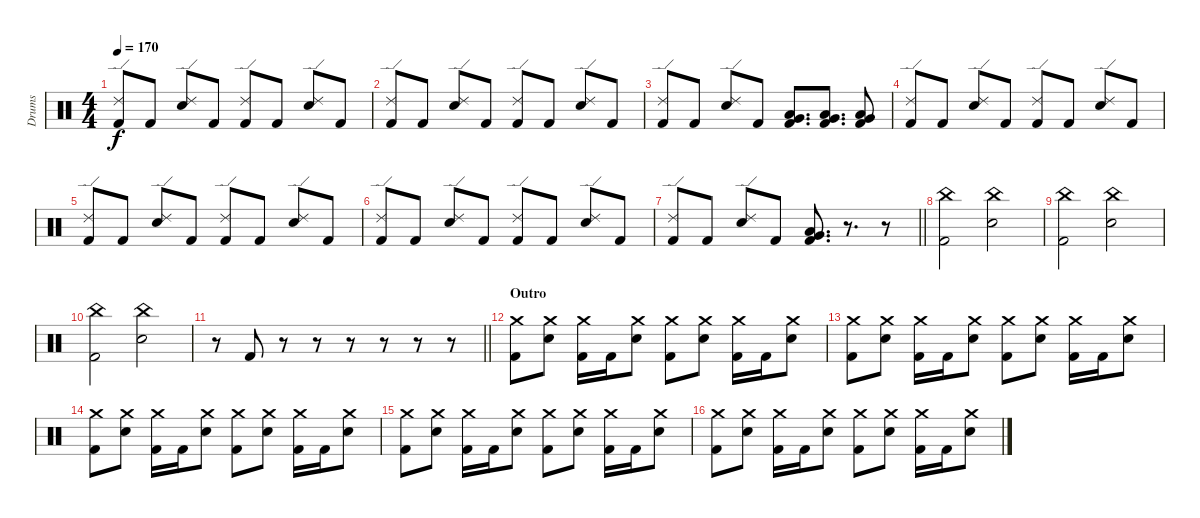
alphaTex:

\track ("Drums" "Drums") {instrument percussion}
\staff {score}
\articulation defaults
\ts (4 4)
\tempo 170
\clef neutral
\ks c
("Ride (edge) 2" "Kick (hit) 2").8{dy f} "Kick (hit) 2".8 ("Ride (edge) 2" "Electric Snare (hit)").8 "Kick (hit) 2".8 ("Ride (edge) 2" "Kick (hit) 2").8 "Kick (hit) 2".8 ("Ride (edge) 2" "Electric Snare (hit)").8 "Kick (hit) 2".8 |
("Ride (edge) 2" "Kick (hit) 2").8 "Kick (hit) 2".8 ("Ride (edge) 2" "Electric Snare (hit)").8 "Kick (hit) 2".8 ("Ride (edge) 2" "Kick (hit) 2").8 "Kick (hit) 2".8 ("Ride (edge) 2" "Electric Snare (hit)").8 "Kick (hit) 2".8 |
("Ride (edge) 2" "Kick (hit) 2").8 "Kick (hit) 2".8 ("Ride (edge) 2" "Electric Snare (hit)").8 "Kick (hit) 2".8 ("Low Floor Tom (hit)" "Very Low Tom (hit)" "Kick (hit) 2").8{d} ("Low Floor Tom (hit)" "Very Low Tom (hit)" "Kick (hit) 2").8{d} ("Low Floor Tom (hit)" "Very Low Tom (hit)" "Kick (hit) 2").8 |
("Ride (edge) 2" "Kick (hit) 2").8 "Kick (hit) 2".8 ("Ride (edge) 2" "Electric Snare (hit)").8 "Kick (hit) 2".8 ("Ride (edge) 2" "Kick (hit) 2").8 "Kick (hit) 2".8 ("Ride (edge) 2" "Electric Snare (hit)").8 "Kick (hit) 2".8 |
("Ride (edge) 2" "Kick (hit) 2").8 "Kick (hit) 2".8 ("Ride (edge) 2" "Electric Snare (hit)").8 "Kick (hit) 2".8 ("Ride (edge) 2" "Kick (hit) 2").8 "Kick (hit) 2".8 ("Ride (edge) 2" "Electric Snare (hit)").8 "Kick (hit) 2".8 |
("Ride (edge) 2" "Kick (hit) 2").8 "Kick (hit) 2".8 ("Ride (edge) 2" "Electric Snare (hit)").8 "Kick (hit) 2".8 ("Ride (edge) 2" "Kick (hit) 2").8 "Kick (hit) 2".8 ("Ride (edge) 2" "Electric Snare (hit)").8 "Kick (hit) 2".8 |
\barLineRight lightlight
("Ride (edge) 2" "Kick (hit) 2").8 "Kick (hit) 2".8 ("Ride (edge) 2" "Electric Snare (hit)").8 "Kick (hit) 2".8 ("Low Floor Tom (hit)" "Very Low Tom (hit)" "Kick (hit) 2").8{d} r.8{d} r.8 |
\section ("" "")
("China (hit)" "Kick (hit) 2").2 ("China (hit)" "Electric Snare (hit)").2 |
("China (hit)" "Kick (hit) 2").2 ("China (hit)" "Electric Snare (hit)").2 |
("China (hit)" "Kick (hit) 2").2 ("China (hit)" "Electric Snare (hit)").2 |
\barLineRight lightlight
r.8 "Kick (hit) 2".8 r.8 r.8 r.8 r.8 r.8 r.8 |
\section ("" "Outro")
("Crash medium (hit)" "Kick (hit) 2").8 ("Crash medium (hit)" "Electric Snare (hit)").8 ("Crash medium (hit)" "Kick (hit) 2").16 "Kick (hit) 2".16 ("Crash medium (hit)" "Electric Snare (hit)").8 ("Crash medium (hit)" "Kick (hit) 2").8 ("Crash medium (hit)" "Electric Snare (hit)").8 ("Crash medium (hit)" "Kick (hit) 2").16 "Kick (hit) 2".16 ("Crash medium (hit)" "Electric Snare (hit)").8 |
("Crash medium (hit)" "Kick (hit) 2").8 ("Crash medium (hit)" "Electric Snare (hit)").8 ("Crash medium (hit)" "Kick (hit) 2").16 "Kick (hit) 2".16 ("Crash medium (hit)" "Electric Snare (hit)").8 ("Crash medium (hit)" "Kick (hit) 2").8 ("Crash medium (hit)" "Electric Snare (hit)").8 ("Crash medium (hit)" "Kick (hit) 2").16 "Kick (hit) 2".16 ("Crash medium (hit)" "Electric Snare (hit)").8 |
("Crash medium (hit)" "Kick (hit) 2").8 ("Crash medium (hit)" "Electric Snare (hit)").8 ("Crash medium (hit)" "Kick (hit) 2").16 "Kick (hit) 2".16 ("Crash medium (hit)" "Electric Snare (hit)").8 ("Crash medium (hit)" "Kick (hit) 2").8 ("Crash medium (hit)" "Electric Snare (hit)").8 ("Crash medium (hit)" "Kick (hit) 2").16 "Kick (hit) 2".16 ("Crash medium (hit)" "Electric Snare (hit)").8 |
("Crash medium (hit)" "Kick (hit) 2").8 ("Crash medium (hit)" "Electric Snare (hit)").8 ("Crash medium (hit)" "Kick (hit) 2").16 "Kick (hit) 2".16 ("Crash medium (hit)" "Electric Snare (hit)").8 ("Crash medium (hit)" "Kick (hit) 2").8 ("Crash medium (hit)" "Electric Snare (hit)").8 ("Crash medium (hit)" "Kick (hit) 2").16 "Kick (hit) 2".16 ("Crash medium (hit)" "Electric Snare (hit)").8 |
("Crash medium (hit)" "Kick (hit) 2").8 ("Crash medium (hit)" "Electric Snare (hit)").8 ("Crash medium (hit)" "Kick (hit) 2").16 "Kick (hit) 2".16 ("Crash medium (hit)" "Electric Snare (hit)").8 ("Crash medium (hit)" "Kick (hit) 2").8 ("Crash medium (hit)" "Electric Snare (hit)").8 ("Crash medium (hit)" "Kick (hit) 2").16 "Kick (hit) 2".16 ("Crash medium (hit)" "Electric Snare (hit)").8
